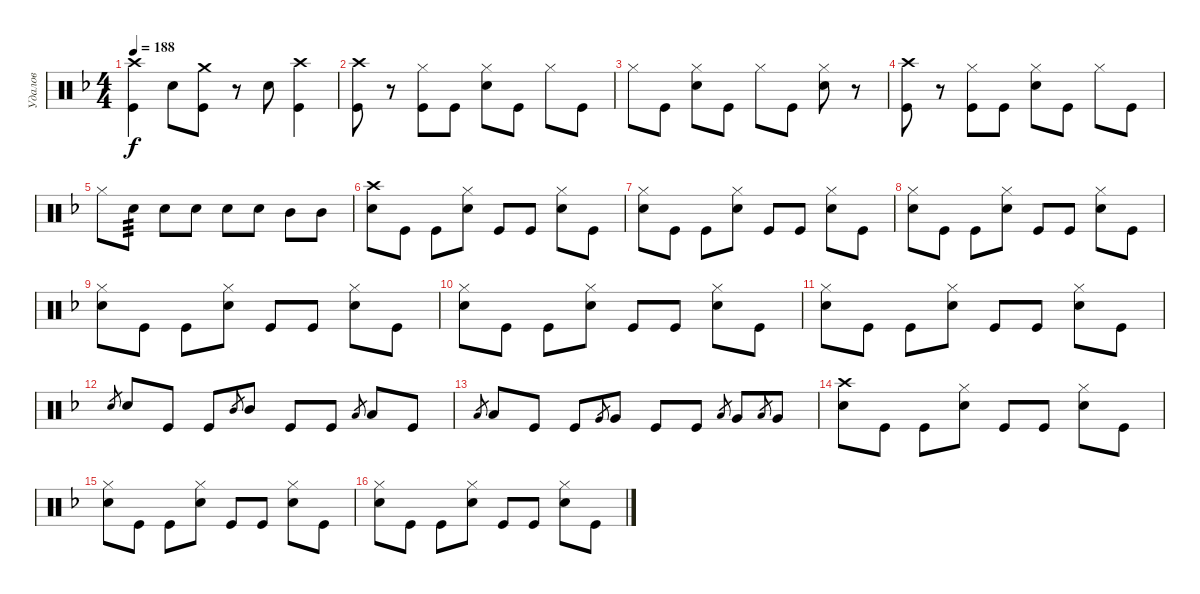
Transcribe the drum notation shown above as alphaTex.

\track ("Удалов" "Удалов") {instrument percussion}
\staff {score}
\articulation defaults
\ts (4 4)
\tempo 188
\clef neutral
\ks f
("Crash high (hit)" "Kick (hit)").4{dy f} "Electric Snare (hit)".8 ("Crash medium (hit)" "Kick (hit)").8 r.8 "Electric Snare (hit)".8 ("Crash high (hit)" "Kick (hit)").4 |
("Crash high (hit)" "Kick (hit)").8 r.8 ("Hi-Hat (closed)" "Kick (hit)").8 "Kick (hit)".8 ("Hi-Hat (closed)" "Electric Snare (hit)").8 "Kick (hit)".8 "Hi-Hat (closed)".8 "Kick (hit)".8 |
"Hi-Hat (closed)".8 "Kick (hit)".8 ("Hi-Hat (closed)" "Electric Snare (hit)").8 "Kick (hit)".8 "Hi-Hat (closed)".8 "Kick (hit)".8 ("Hi-Hat (closed)" "Electric Snare (hit)").8 r.8 |
("Crash high (hit)" "Kick (hit)").8 r.8 ("Hi-Hat (closed)" "Kick (hit)").8 "Kick (hit)".8 ("Hi-Hat (closed)" "Electric Snare (hit)").8 "Kick (hit)".8 "Hi-Hat (closed)".8 "Kick (hit)".8 |
"Hi-Hat (closed)".8 "Electric Snare (hit)".8{tp 3} "Electric Snare (hit)".8 "Electric Snare (hit)".8 "Electric Snare (hit)".8 "Electric Snare (hit)".8 "Mid Tom (hit)".8 "Mid Tom (hit)".8 |
("Crash high (hit)" "Electric Snare (hit)").8 "Kick (hit)".8 "Kick (hit)".8 ("Hi-Hat (closed)" "Electric Snare (hit)").8 "Kick (hit)".8 "Kick (hit)".8 ("Hi-Hat (closed)" "Electric Snare (hit)").8 "Kick (hit)".8 |
("Hi-Hat (closed)" "Electric Snare (hit)").8 "Kick (hit)".8 "Kick (hit)".8 ("Hi-Hat (closed)" "Electric Snare (hit)").8 "Kick (hit)".8 "Kick (hit)".8 ("Hi-Hat (closed)" "Electric Snare (hit)").8 "Kick (hit)".8 |
("Hi-Hat (closed)" "Electric Snare (hit)").8 "Kick (hit)".8 "Kick (hit)".8 ("Hi-Hat (closed)" "Electric Snare (hit)").8 "Kick (hit)".8 "Kick (hit)".8 ("Hi-Hat (closed)" "Electric Snare (hit)").8 "Kick (hit)".8 |
("Hi-Hat (closed)" "Electric Snare (hit)").8 "Kick (hit)".8 "Kick (hit)".8 ("Hi-Hat (closed)" "Electric Snare (hit)").8 "Kick (hit)".8 "Kick (hit)".8 ("Hi-Hat (closed)" "Electric Snare (hit)").8 "Kick (hit)".8 |
("Hi-Hat (closed)" "Electric Snare (hit)").8 "Kick (hit)".8 "Kick (hit)".8 ("Hi-Hat (closed)" "Electric Snare (hit)").8 "Kick (hit)".8 "Kick (hit)".8 ("Hi-Hat (closed)" "Electric Snare (hit)").8 "Kick (hit)".8 |
("Hi-Hat (closed)" "Electric Snare (hit)").8 "Kick (hit)".8 "Kick (hit)".8 ("Hi-Hat (closed)" "Electric Snare (hit)").8 "Kick (hit)".8 "Kick (hit)".8 ("Hi-Hat (closed)" "Electric Snare (hit)").8 "Kick (hit)".8 |
"Electric Snare (hit)".8{gr} "Electric Snare (hit)".8 "Kick (hit)".8 "Kick (hit)".8 "Mid Tom (hit)".8{gr} "Mid Tom (hit)".8 "Kick (hit)".8 "Kick (hit)".8 "Low Tom (hit)".8{gr} "Low Tom (hit)".8 "Kick (hit)".8 |
"Low Tom (hit)".8{gr} "Low Tom (hit)".8 "Kick (hit)".8 "Kick (hit)".8 "Very Low Tom (hit)".8{gr} "Very Low Tom (hit)".8 "Kick (hit)".8 "Kick (hit)".8 "Low Floor Tom (hit)".8{gr} "Very Low Tom (hit)".8 "Low Floor Tom (hit)".8{gr} "Very Low Tom (hit)".8 |
("Crash high (hit)" "Electric Snare (hit)").8 "Kick (hit)".8 "Kick (hit)".8 ("Hi-Hat (closed)" "Electric Snare (hit)").8 "Kick (hit)".8 "Kick (hit)".8 ("Hi-Hat (closed)" "Electric Snare (hit)").8 "Kick (hit)".8 |
("Hi-Hat (closed)" "Electric Snare (hit)").8 "Kick (hit)".8 "Kick (hit)".8 ("Hi-Hat (closed)" "Electric Snare (hit)").8 "Kick (hit)".8 "Kick (hit)".8 ("Hi-Hat (closed)" "Electric Snare (hit)").8 "Kick (hit)".8 |
("Hi-Hat (closed)" "Electric Snare (hit)").8 "Kick (hit)".8 "Kick (hit)".8 ("Hi-Hat (closed)" "Electric Snare (hit)").8 "Kick (hit)".8 "Kick (hit)".8 ("Hi-Hat (closed)" "Electric Snare (hit)").8 "Kick (hit)".8
